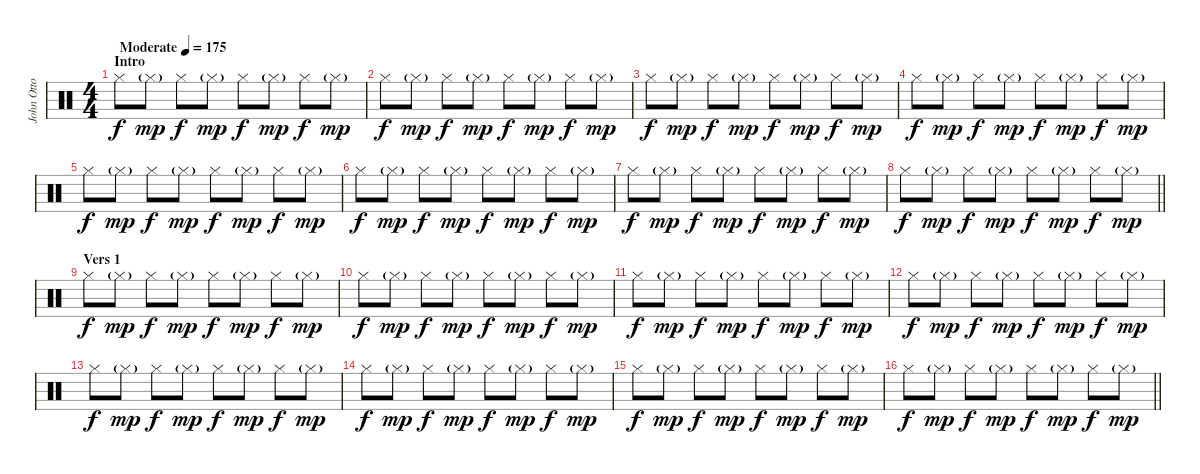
\track ("John Otto" "John Otto") {instrument percussion}
\staff {score}
\articulation defaults
\ts (4 4)
\section ("" "Intro")
\tempo (175 "Moderate")
\clef neutral
\ks c "Hi-Hat (closed)".8{dy f} "Hi-Hat (closed)"{g}.8{dy mp} "Hi-Hat (closed)".8{dy f} "Hi-Hat (closed)"{g}.8{dy mp} "Hi-Hat (closed)".8{dy f} "Hi-Hat (closed)"{g}.8{dy mp} "Hi-Hat (closed)".8{dy f} "Hi-Hat (closed)"{g}.8{dy mp}
|
"Hi-Hat (closed)".8{dy f} "Hi-Hat (closed)"{g}.8{dy mp} "Hi-Hat (closed)".8{dy f} "Hi-Hat (closed)"{g}.8{dy mp} "Hi-Hat (closed)".8{dy f} "Hi-Hat (closed)"{g}.8{dy mp} "Hi-Hat (closed)".8{dy f} "Hi-Hat (closed)"{g}.8{dy mp} |
"Hi-Hat (closed)".8{dy f} "Hi-Hat (closed)"{g}.8{dy mp} "Hi-Hat (closed)".8{dy f} "Hi-Hat (closed)"{g}.8{dy mp} "Hi-Hat (closed)".8{dy f} "Hi-Hat (closed)"{g}.8{dy mp} "Hi-Hat (closed)".8{dy f} "Hi-Hat (closed)"{g}.8{dy mp} |
"Hi-Hat (closed)".8{dy f} "Hi-Hat (closed)"{g}.8{dy mp} "Hi-Hat (closed)".8{dy f} "Hi-Hat (closed)"{g}.8{dy mp} "Hi-Hat (closed)".8{dy f} "Hi-Hat (closed)"{g}.8{dy mp} "Hi-Hat (closed)".8{dy f} "Hi-Hat (closed)"{g}.8{dy mp} |
"Hi-Hat (closed)".8{dy f} "Hi-Hat (closed)"{g}.8{dy mp} "Hi-Hat (closed)".8{dy f} "Hi-Hat (closed)"{g}.8{dy mp} "Hi-Hat (closed)".8{dy f} "Hi-Hat (closed)"{g}.8{dy mp} "Hi-Hat (closed)".8{dy f} "Hi-Hat (closed)"{g}.8{dy mp} |
"Hi-Hat (closed)".8{dy f} "Hi-Hat (closed)"{g}.8{dy mp} "Hi-Hat (closed)".8{dy f} "Hi-Hat (closed)"{g}.8{dy mp} "Hi-Hat (closed)".8{dy f} "Hi-Hat (closed)"{g}.8{dy mp} "Hi-Hat (closed)".8{dy f} "Hi-Hat (closed)"{g}.8{dy mp} |
"Hi-Hat (closed)".8{dy f} "Hi-Hat (closed)"{g}.8{dy mp} "Hi-Hat (closed)".8{dy f} "Hi-Hat (closed)"{g}.8{dy mp} "Hi-Hat (closed)".8{dy f} "Hi-Hat (closed)"{g}.8{dy mp} "Hi-Hat (closed)".8{dy f} "Hi-Hat (closed)"{g}.8{dy mp} |
\barLineRight lightlight "Hi-Hat (closed)".8{dy f} "Hi-Hat (closed)"{g}.8{dy mp} "Hi-Hat (closed)".8{dy f} "Hi-Hat (closed)"{g}.8{dy mp} "Hi-Hat (closed)".8{dy f} "Hi-Hat (closed)"{g}.8{dy mp} "Hi-Hat (closed)".8{dy f} "Hi-Hat (closed)"{g}.8{dy mp}
|
\section ("" "Vers 1")
"Hi-Hat (closed)".8{dy f} "Hi-Hat (closed)"{g}.8{dy mp} "Hi-Hat (closed)".8{dy f} "Hi-Hat (closed)"{g}.8{dy mp} "Hi-Hat (closed)".8{dy f} "Hi-Hat (closed)"{g}.8{dy mp} "Hi-Hat (closed)".8{dy f} "Hi-Hat (closed)"{g}.8{dy mp} |
"Hi-Hat (closed)".8{dy f} "Hi-Hat (closed)"{g}.8{dy mp} "Hi-Hat (closed)".8{dy f} "Hi-Hat (closed)"{g}.8{dy mp} "Hi-Hat (closed)".8{dy f} "Hi-Hat (closed)"{g}.8{dy mp} "Hi-Hat (closed)".8{dy f} "Hi-Hat (closed)"{g}.8{dy mp} |
"Hi-Hat (closed)".8{dy f} "Hi-Hat (closed)"{g}.8{dy mp} "Hi-Hat (closed)".8{dy f} "Hi-Hat (closed)"{g}.8{dy mp} "Hi-Hat (closed)".8{dy f} "Hi-Hat (closed)"{g}.8{dy mp} "Hi-Hat (closed)".8{dy f} "Hi-Hat (closed)"{g}.8{dy mp} |
"Hi-Hat (closed)".8{dy f} "Hi-Hat (closed)"{g}.8{dy mp} "Hi-Hat (closed)".8{dy f} "Hi-Hat (closed)"{g}.8{dy mp} "Hi-Hat (closed)".8{dy f} "Hi-Hat (closed)"{g}.8{dy mp} "Hi-Hat (closed)".8{dy f} "Hi-Hat (closed)"{g}.8{dy mp} |
"Hi-Hat (closed)".8{dy f} "Hi-Hat (closed)"{g}.8{dy mp} "Hi-Hat (closed)".8{dy f} "Hi-Hat (closed)"{g}.8{dy mp} "Hi-Hat (closed)".8{dy f} "Hi-Hat (closed)"{g}.8{dy mp} "Hi-Hat (closed)".8{dy f} "Hi-Hat (closed)"{g}.8{dy mp} |
"Hi-Hat (closed)".8{dy f} "Hi-Hat (closed)"{g}.8{dy mp} "Hi-Hat (closed)".8{dy f} "Hi-Hat (closed)"{g}.8{dy mp} "Hi-Hat (closed)".8{dy f} "Hi-Hat (closed)"{g}.8{dy mp} "Hi-Hat (closed)".8{dy f} "Hi-Hat (closed)"{g}.8{dy mp} |
"Hi-Hat (closed)".8{dy f} "Hi-Hat (closed)"{g}.8{dy mp} "Hi-Hat (closed)".8{dy f} "Hi-Hat (closed)"{g}.8{dy mp} "Hi-Hat (closed)".8{dy f} "Hi-Hat (closed)"{g}.8{dy mp} "Hi-Hat (closed)".8{dy f} "Hi-Hat (closed)"{g}.8{dy mp} |
\barLineRight lightlight "Hi-Hat (closed)".8{dy f} "Hi-Hat (closed)"{g}.8{dy mp} "Hi-Hat (closed)".8{dy f} "Hi-Hat (closed)"{g}.8{dy mp} "Hi-Hat (closed)".8{dy f} "Hi-Hat (closed)"{g}.8{dy mp} "Hi-Hat (closed)".8{dy f} "Hi-Hat (closed)"{g}.8{dy mp}
